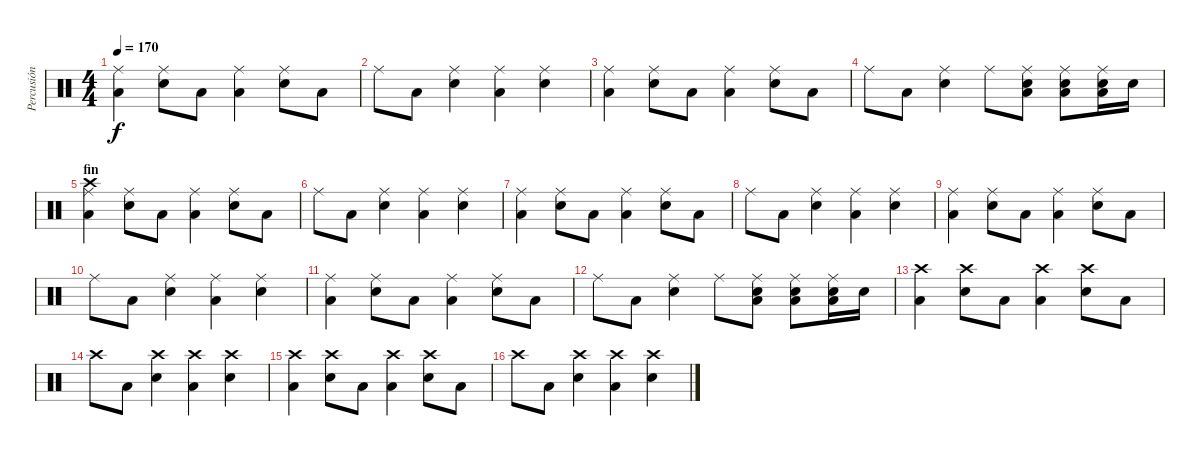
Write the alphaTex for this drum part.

\track ("Percusión" "Percusión") {instrument percussion}
\staff {score}
\articulation defaults
\ts (4 4)
\tempo 170
\clef neutral
\ks c
("Low Floor Tom (hit)" "Ride (middle)").4{dy f} ("Snare (hit) 2" "Ride (middle)").8 "Low Floor Tom (hit)".8 ("Low Floor Tom (hit)" "Ride (middle)").4 ("Snare (hit) 2" "Ride (middle)").8 "Low Floor Tom (hit)".8 |
"Ride (middle)".8 "Low Floor Tom (hit)".8 ("Snare (hit) 2" "Ride (middle)").4 ("Low Floor Tom (hit)" "Ride (middle)").4 ("Snare (hit) 2" "Ride (middle)").4 |
("Low Floor Tom (hit)" "Ride (middle)").4 ("Snare (hit) 2" "Ride (middle)").8 "Low Floor Tom (hit)".8 ("Low Floor Tom (hit)" "Ride (middle)").4 ("Snare (hit) 2" "Ride (middle)").8 "Low Floor Tom (hit)".8 |
"Ride (middle)".8 "Low Floor Tom (hit)".8 ("Snare (hit) 2" "Ride (middle)").4 "Ride (middle)".8 ("Low Floor Tom (hit)" "Snare (hit) 2" "Ride (middle)").8 ("Low Floor Tom (hit)" "Snare (hit) 2" "Ride (middle)").8 ("Low Floor Tom (hit)" "Snare (hit) 2" "Ride (middle)").16 "Snare (hit) 2".16 |
\section ("" "fin")
("Low Floor Tom (hit)" "Ride (middle)" "Crash high (hit)").4 ("Snare (hit) 2" "Ride (middle)").8 "Low Floor Tom (hit)".8 ("Low Floor Tom (hit)" "Ride (middle)").4 ("Snare (hit) 2" "Ride (middle)").8 "Low Floor Tom (hit)".8 |
"Ride (middle)".8 "Low Floor Tom (hit)".8 ("Snare (hit) 2" "Ride (middle)").4 ("Low Floor Tom (hit)" "Ride (middle)").4 ("Snare (hit) 2" "Ride (middle)").4 |
("Low Floor Tom (hit)" "Ride (middle)").4 ("Snare (hit) 2" "Ride (middle)").8 "Low Floor Tom (hit)".8 ("Low Floor Tom (hit)" "Ride (middle)").4 ("Snare (hit) 2" "Ride (middle)").8 "Low Floor Tom (hit)".8 |
"Ride (middle)".8 "Low Floor Tom (hit)".8 ("Snare (hit) 2" "Ride (middle)").4 ("Low Floor Tom (hit)" "Ride (middle)").4 ("Snare (hit) 2" "Ride (middle)").4 |
("Low Floor Tom (hit)" "Ride (middle)").4 ("Snare (hit) 2" "Ride (middle)").8 "Low Floor Tom (hit)".8 ("Low Floor Tom (hit)" "Ride (middle)").4 ("Snare (hit) 2" "Ride (middle)").8 "Low Floor Tom (hit)".8 |
"Ride (middle)".8 "Low Floor Tom (hit)".8 ("Snare (hit) 2" "Ride (middle)").4 ("Low Floor Tom (hit)" "Ride (middle)").4 ("Snare (hit) 2" "Ride (middle)").4 |
("Low Floor Tom (hit)" "Ride (middle)").4 ("Snare (hit) 2" "Ride (middle)").8 "Low Floor Tom (hit)".8 ("Low Floor Tom (hit)" "Ride (middle)").4 ("Snare (hit) 2" "Ride (middle)").8 "Low Floor Tom (hit)".8 |
"Ride (middle)".8 "Low Floor Tom (hit)".8 ("Snare (hit) 2" "Ride (middle)").4 "Ride (middle)".8 ("Low Floor Tom (hit)" "Snare (hit) 2" "Ride (middle)").8 ("Low Floor Tom (hit)" "Snare (hit) 2" "Ride (middle)").8 ("Low Floor Tom (hit)" "Snare (hit) 2" "Ride (middle)").16 "Snare (hit) 2".16 |
("Low Floor Tom (hit)" "Crash high (hit)").4 ("Snare (hit) 2" "Crash high (hit)").8 "Low Floor Tom (hit)".8 ("Low Floor Tom (hit)" "Crash high (hit)").4 ("Snare (hit) 2" "Crash high (hit)").8 "Low Floor Tom (hit)".8 |
"Crash high (hit)".8 "Low Floor Tom (hit)".8 ("Snare (hit) 2" "Crash high (hit)").4 ("Low Floor Tom (hit)" "Crash high (hit)").4 ("Snare (hit) 2" "Crash high (hit)").4 |
("Low Floor Tom (hit)" "Crash high (hit)").4 ("Snare (hit) 2" "Crash high (hit)").8 "Low Floor Tom (hit)".8 ("Low Floor Tom (hit)" "Crash high (hit)").4 ("Snare (hit) 2" "Crash high (hit)").8 "Low Floor Tom (hit)".8 |
"Crash high (hit)".8 "Low Floor Tom (hit)".8 ("Snare (hit) 2" "Crash high (hit)").4 ("Low Floor Tom (hit)" "Crash high (hit)").4 ("Snare (hit) 2" "Crash high (hit)").4
